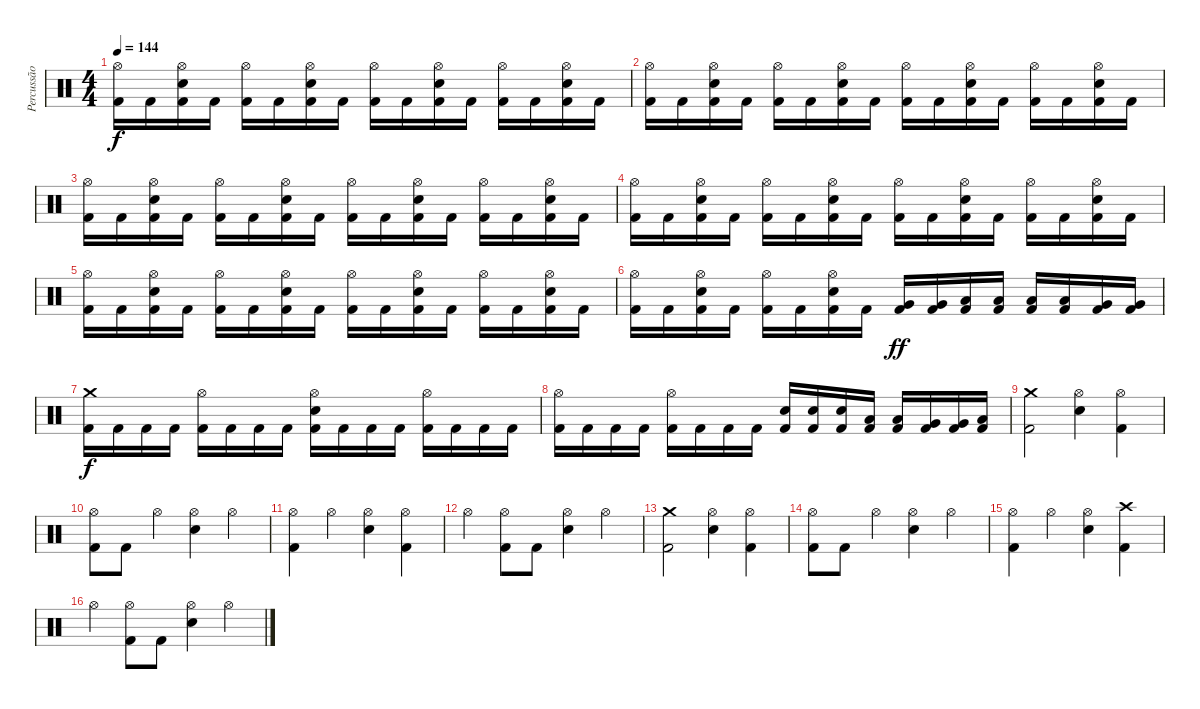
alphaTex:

\track ("Percussão" "Percussão") {instrument percussion}
\staff {score}
\articulation defaults
\ts (4 4)
\tempo 144
\clef neutral
\ks c
("Hi-Hat (open)" "Kick (hit) 2").16{dy f} "Kick (hit) 2".16 ("Hi-Hat (open)" "Electric Snare (hit)" "Kick (hit) 2").16 "Kick (hit) 2".16 ("Hi-Hat (open)" "Kick (hit) 2").16 "Kick (hit) 2".16 ("Hi-Hat (open)" "Electric Snare (hit)" "Kick (hit) 2").16 "Kick (hit) 2".16 ("Hi-Hat (open)" "Kick (hit) 2").16 "Kick (hit) 2".16 ("Hi-Hat (open)" "Electric Snare (hit)" "Kick (hit) 2").16 "Kick (hit) 2".16 ("Hi-Hat (open)" "Kick (hit) 2").16 "Kick (hit) 2".16 ("Hi-Hat (open)" "Electric Snare (hit)" "Kick (hit) 2").16 "Kick (hit) 2".16 |
("Hi-Hat (open)" "Kick (hit) 2").16 "Kick (hit) 2".16 ("Hi-Hat (open)" "Electric Snare (hit)" "Kick (hit) 2").16 "Kick (hit) 2".16 ("Hi-Hat (open)" "Kick (hit) 2").16 "Kick (hit) 2".16 ("Hi-Hat (open)" "Electric Snare (hit)" "Kick (hit) 2").16 "Kick (hit) 2".16 ("Hi-Hat (open)" "Kick (hit) 2").16 "Kick (hit) 2".16 ("Hi-Hat (open)" "Electric Snare (hit)" "Kick (hit) 2").16 "Kick (hit) 2".16 ("Hi-Hat (open)" "Kick (hit) 2").16 "Kick (hit) 2".16 ("Hi-Hat (open)" "Electric Snare (hit)" "Kick (hit) 2").16 "Kick (hit) 2".16 |
("Hi-Hat (open)" "Kick (hit) 2").16 "Kick (hit) 2".16 ("Hi-Hat (open)" "Electric Snare (hit)" "Kick (hit) 2").16 "Kick (hit) 2".16 ("Hi-Hat (open)" "Kick (hit) 2").16 "Kick (hit) 2".16 ("Hi-Hat (open)" "Electric Snare (hit)" "Kick (hit) 2").16 "Kick (hit) 2".16 ("Hi-Hat (open)" "Kick (hit) 2").16 "Kick (hit) 2".16 ("Hi-Hat (open)" "Electric Snare (hit)" "Kick (hit) 2").16 "Kick (hit) 2".16 ("Hi-Hat (open)" "Kick (hit) 2").16 "Kick (hit) 2".16 ("Hi-Hat (open)" "Electric Snare (hit)" "Kick (hit) 2").16 "Kick (hit) 2".16 |
("Hi-Hat (open)" "Kick (hit) 2").16 "Kick (hit) 2".16 ("Hi-Hat (open)" "Electric Snare (hit)" "Kick (hit) 2").16 "Kick (hit) 2".16 ("Hi-Hat (open)" "Kick (hit) 2").16 "Kick (hit) 2".16 ("Hi-Hat (open)" "Electric Snare (hit)" "Kick (hit) 2").16 "Kick (hit) 2".16 ("Hi-Hat (open)" "Kick (hit) 2").16 "Kick (hit) 2".16 ("Hi-Hat (open)" "Electric Snare (hit)" "Kick (hit) 2").16 "Kick (hit) 2".16 ("Hi-Hat (open)" "Kick (hit) 2").16 "Kick (hit) 2".16 ("Hi-Hat (open)" "Electric Snare (hit)" "Kick (hit) 2").16 "Kick (hit) 2".16 |
("Hi-Hat (open)" "Kick (hit) 2").16 "Kick (hit) 2".16 ("Hi-Hat (open)" "Electric Snare (hit)" "Kick (hit) 2").16 "Kick (hit) 2".16 ("Hi-Hat (open)" "Kick (hit) 2").16 "Kick (hit) 2".16 ("Hi-Hat (open)" "Electric Snare (hit)" "Kick (hit) 2").16 "Kick (hit) 2".16 ("Hi-Hat (open)" "Kick (hit) 2").16 "Kick (hit) 2".16 ("Hi-Hat (open)" "Electric Snare (hit)" "Kick (hit) 2").16 "Kick (hit) 2".16 ("Hi-Hat (open)" "Kick (hit) 2").16 "Kick (hit) 2".16 ("Hi-Hat (open)" "Electric Snare (hit)" "Kick (hit) 2").16 "Kick (hit) 2".16 |
("Hi-Hat (open)" "Kick (hit) 2").16 "Kick (hit) 2".16 ("Hi-Hat (open)" "Electric Snare (hit)" "Kick (hit) 2").16 "Kick (hit) 2".16 ("Hi-Hat (open)" "Kick (hit) 2").16 "Kick (hit) 2".16 ("Hi-Hat (open)" "Electric Snare (hit)" "Kick (hit) 2").16 "Kick (hit) 2".16 ("Very Low Tom (hit)" "Kick (hit) 2").16{dy ff} ("Very Low Tom (hit)" "Kick (hit) 2").16 ("Low Floor Tom (hit)" "Kick (hit) 2").16 ("Low Floor Tom (hit)" "Kick (hit) 2").16 ("Low Tom (hit)" "Kick (hit) 2").16 ("Low Tom (hit)" "Kick (hit) 2").16 ("Very Low Tom (hit)" "Kick (hit) 2").16 ("Very Low Tom (hit)" "Kick (hit) 2").16 |
("Crash medium (hit)" "Kick (hit) 2").16{dy f} "Kick (hit) 2".16 "Kick (hit) 2".16 "Kick (hit) 2".16 ("Hi-Hat (open)" "Kick (hit) 2").16 "Kick (hit) 2".16 "Kick (hit) 2".16 "Kick (hit) 2".16 ("Hi-Hat (open)" "Electric Snare (hit)" "Kick (hit) 2").16 "Kick (hit) 2".16 "Kick (hit) 2".16 "Kick (hit) 2".16 ("Hi-Hat (open)" "Kick (hit) 2").16 "Kick (hit) 2".16 "Kick (hit) 2".16 "Kick (hit) 2".16 |
("Hi-Hat (open)" "Kick (hit) 2").16 "Kick (hit) 2".16 "Kick (hit) 2".16 "Kick (hit) 2".16 ("Hi-Hat (open)" "Kick (hit) 2").16 "Kick (hit) 2".16 "Kick (hit) 2".16 "Kick (hit) 2".16 ("Electric Snare (hit)" "Kick (hit) 2").16 ("Electric Snare (hit)" "Kick (hit) 2").16 ("Electric Snare (hit)" "Kick (hit) 2").16 ("Low Tom (hit)" "Kick (hit) 2").16 ("Low Tom (hit)" "Kick (hit) 2").16 ("Very Low Tom (hit)" "Kick (hit) 2").16 ("Very Low Tom (hit)" "Kick (hit) 2").16 ("Low Floor Tom (hit)" "Kick (hit) 2").16 |
("Crash medium (hit)" "Kick (hit) 2").2 ("Hi-Hat (open)" "Electric Snare (hit)").4 ("Hi-Hat (open)" "Kick (hit) 2").4 |
("Hi-Hat (open)" "Kick (hit) 2").8 "Kick (hit) 2".8 "Hi-Hat (open)".4 ("Hi-Hat (open)" "Electric Snare (hit)").4 "Hi-Hat (open)".4 |
("Hi-Hat (open)" "Kick (hit) 2").4 "Hi-Hat (open)".4 ("Hi-Hat (open)" "Electric Snare (hit)").4 ("Hi-Hat (open)" "Kick (hit) 2").4 |
"Hi-Hat (open)".4 ("Hi-Hat (open)" "Kick (hit) 2").8 "Kick (hit) 2".8 ("Hi-Hat (open)" "Electric Snare (hit)").4 "Hi-Hat (open)".4 |
("Crash medium (hit)" "Kick (hit) 2").2 ("Hi-Hat (open)" "Electric Snare (hit)").4 ("Hi-Hat (open)" "Kick (hit) 2").4 |
("Hi-Hat (open)" "Kick (hit) 2").8 "Kick (hit) 2".8 "Hi-Hat (open)".4 ("Hi-Hat (open)" "Electric Snare (hit)").4 "Hi-Hat (open)".4 |
("Hi-Hat (open)" "Kick (hit) 2").4 "Hi-Hat (open)".4 ("Hi-Hat (open)" "Electric Snare (hit)").4 ("Crash high (hit)" "Kick (hit) 2").4 |
"Hi-Hat (open)".4 ("Hi-Hat (open)" "Kick (hit) 2").8 "Kick (hit) 2".8 ("Hi-Hat (open)" "Electric Snare (hit)").4 "Hi-Hat (open)".4
